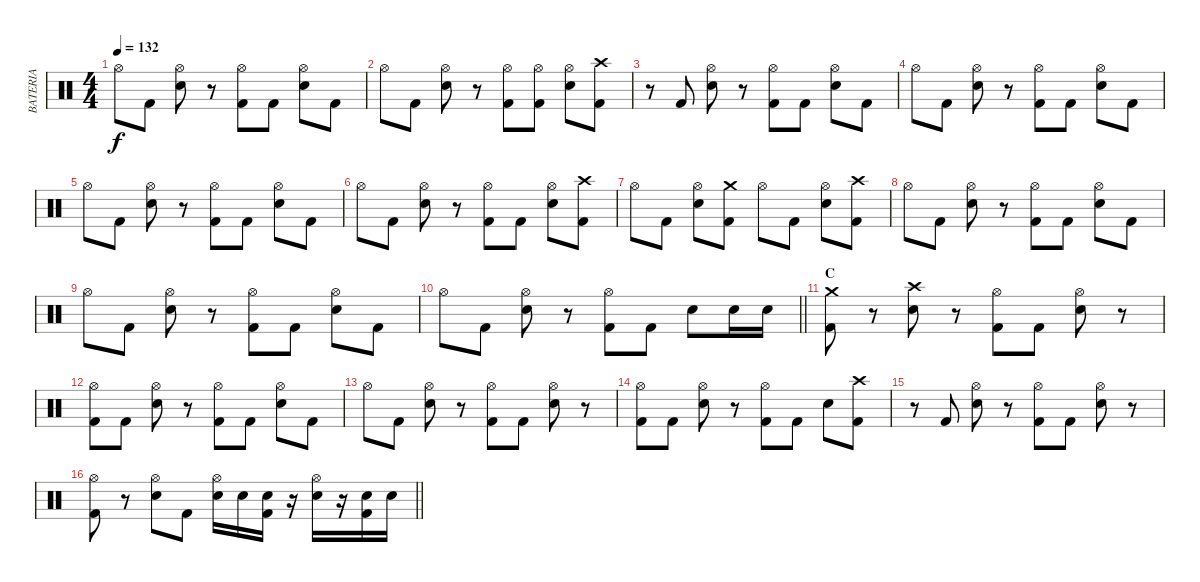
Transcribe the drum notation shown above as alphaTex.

\track ("BATERIA" "BATERIA") {instrument percussion}
\staff {score}
\articulation defaults
\ts (4 4)
\tempo 132
\clef neutral
\ks c "Hi-Hat (open)".8{dy f} "Kick (hit) 2".8
("Hi-Hat (open)" "Electric Snare (hit)").8 r.8 ("Kick (hit) 2" "Hi-Hat (open)").8 "Kick (hit) 2".8 ("Hi-Hat (open)" "Electric Snare (hit)").8 "Kick (hit) 2".8 |
"Hi-Hat (open)".8 "Kick (hit) 2".8 ("Hi-Hat (open)" "Electric Snare (hit)").8 r.8 ("Kick (hit) 2" "Hi-Hat (open)").8 ("Kick (hit) 2" "Hi-Hat (open)").8 ("Hi-Hat (open)" "Electric Snare (hit)").8 ("Kick (hit) 2" "Crash high (hit)").8 |
r.8 "Kick (hit) 2".8 ("Hi-Hat (open)" "Electric Snare (hit)").8 r.8 ("Kick (hit) 2" "Hi-Hat (open)").8 "Kick (hit) 2".8 ("Hi-Hat (open)" "Electric Snare (hit)").8 "Kick (hit) 2".8 |
"Hi-Hat (open)".8 "Kick (hit) 2".8 ("Hi-Hat (open)" "Electric Snare (hit)").8 r.8 ("Kick (hit) 2" "Hi-Hat (open)").8 "Kick (hit) 2".8 ("Hi-Hat (open)" "Electric Snare (hit)").8 "Kick (hit) 2".8 |
"Hi-Hat (open)".8 "Kick (hit) 2".8 ("Hi-Hat (open)" "Electric Snare (hit)").8 r.8 ("Kick (hit) 2" "Hi-Hat (open)").8 "Kick (hit) 2".8 ("Hi-Hat (open)" "Electric Snare (hit)").8 "Kick (hit) 2".8 |
"Hi-Hat (open)".8 "Kick (hit) 2".8 ("Hi-Hat (open)" "Electric Snare (hit)").8 r.8 ("Kick (hit) 2" "Hi-Hat (open)").8 "Kick (hit) 2".8 ("Hi-Hat (open)" "Electric Snare (hit)").8 ("Kick (hit) 2" "Crash high (hit)").8 |
"Hi-Hat (open)".8 "Kick (hit) 2".8 ("Hi-Hat (open)" "Electric Snare (hit)").8 ("Kick (hit) 2" "Crash medium (hit)").8 "Hi-Hat (open)".8 "Kick (hit) 2".8 ("Hi-Hat (open)" "Electric Snare (hit)").8 ("Kick (hit) 2" "Crash high (hit)").8 |
"Hi-Hat (open)".8 "Kick (hit) 2".8 ("Hi-Hat (open)" "Electric Snare (hit)").8 r.8 ("Kick (hit) 2" "Hi-Hat (open)").8 "Kick (hit) 2".8 ("Hi-Hat (open)" "Electric Snare (hit)").8 "Kick (hit) 2".8 |
"Hi-Hat (open)".8 "Kick (hit) 2".8 ("Hi-Hat (open)" "Electric Snare (hit)").8 r.8 ("Kick (hit) 2" "Hi-Hat (open)").8 "Kick (hit) 2".8 ("Hi-Hat (open)" "Electric Snare (hit)").8 "Kick (hit) 2".8 |
\barLineRight lightlight "Hi-Hat (open)".8 "Kick (hit) 2".8
("Hi-Hat (open)" "Electric Snare (hit)").8 r.8 ("Kick (hit) 2" "Hi-Hat (open)").8 "Kick (hit) 2".8 "Electric Snare (hit)".8 "Electric Snare (hit)".16 "Electric Snare (hit)".16 |
\section ("" "C")
("Kick (hit) 2" "Crash medium (hit)").8 r.8 ("Crash high (hit)" "Electric Snare (hit)").8 r.8 ("Kick (hit) 2" "Hi-Hat (open)").8 "Kick (hit) 2".8 ("Hi-Hat (open)" "Electric Snare (hit)").8 r.8 |
("Kick (hit) 2" "Hi-Hat (open)").8 "Kick (hit) 2".8 ("Hi-Hat (open)" "Electric Snare (hit)").8 r.8 ("Kick (hit) 2" "Hi-Hat (open)").8 "Kick (hit) 2".8 ("Hi-Hat (open)" "Electric Snare (hit)").8 "Kick (hit) 2".8 |
"Hi-Hat (open)".8 "Kick (hit) 2".8 ("Hi-Hat (open)" "Electric Snare (hit)").8 r.8 ("Kick (hit) 2" "Hi-Hat (open)").8 "Kick (hit) 2".8 ("Hi-Hat (open)" "Electric Snare (hit)").8 r.8 |
("Kick (hit) 2" "Hi-Hat (open)").8 "Kick (hit) 2".8 ("Hi-Hat (open)" "Electric Snare (hit)").8 r.8 ("Kick (hit) 2" "Hi-Hat (open)").8 "Kick (hit) 2".8 "Electric Snare (hit)".8 ("Kick (hit) 2" "Crash high (hit)").8 |
r.8 "Kick (hit) 2".8 ("Hi-Hat (open)" "Electric Snare (hit)").8 r.8 ("Kick (hit) 2" "Hi-Hat (open)").8 "Kick (hit) 2".8 ("Hi-Hat (open)" "Electric Snare (hit)").8 r.8 |
\barLineRight lightlight
("Kick (hit) 2" "Hi-Hat (open)").8 r.8 ("Hi-Hat (open)" "Electric Snare (hit)").8 "Kick (hit) 2".8 ("Hi-Hat (open)" "Electric Snare (hit)").16 "Electric Snare (hit)".16 ("Kick (hit) 2" "Electric Snare (hit)").16 r.16 ("Hi-Hat (open)" "Electric Snare (hit)").16 r.16 ("Kick (hit) 2" "Electric Snare (hit)").16 "Electric Snare (hit)".16
